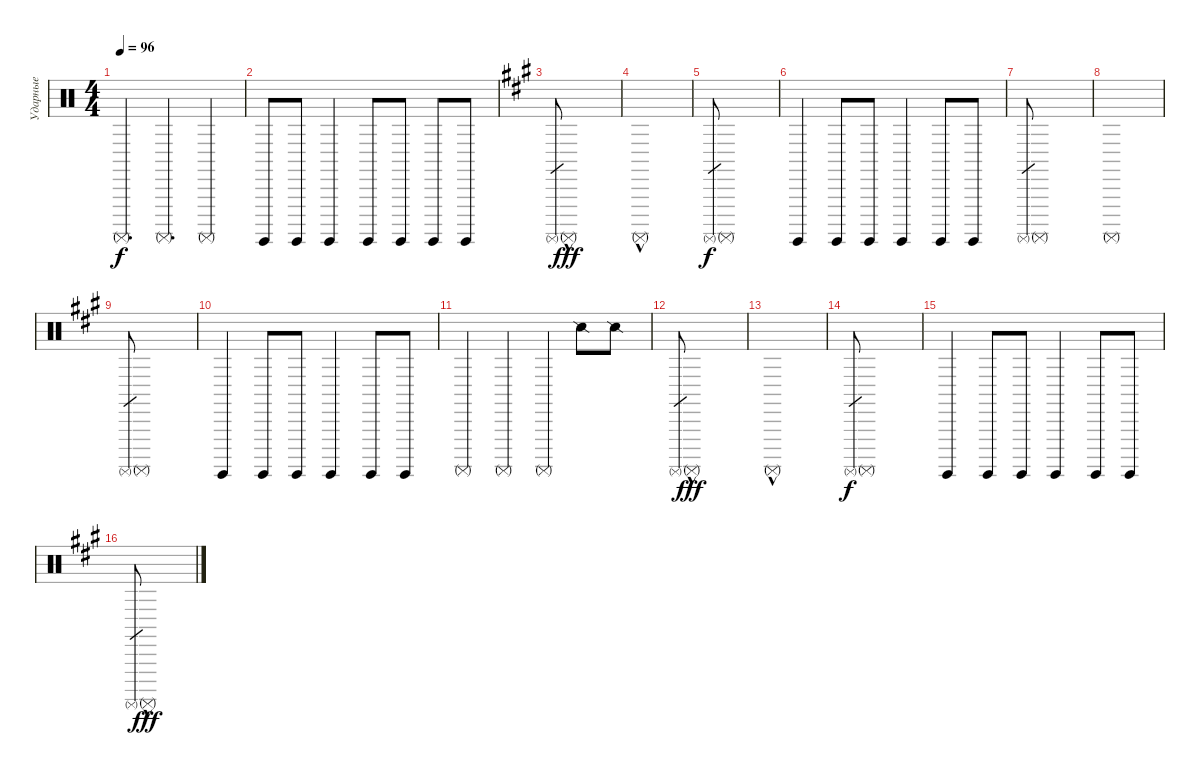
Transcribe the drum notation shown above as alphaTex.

\track ("Ударные" "Ударные") {solo instrument percussion}
\staff {score}
\articulation defaults
\ts (4 4)
\tempo 96
\clef neutral
\ks c "Surdo (mute)".4{d dy f} "Surdo (mute)".4{d} "Surdo (mute)".4
|
"Surdo (hit)".8 "Surdo (hit)".8 "Surdo (hit)".4 "Surdo (hit)".8 "Surdo (hit)".8 "Surdo (hit)".8 "Surdo (hit)".8 |
\ks f#minor "Surdo (mute)".8{gr} "Surdo (mute)"{hac}.1{dy fff}
|
"Surdo (mute)"{hac}.1 |
"Surdo (mute)".8{gr dy f} "Surdo (mute)".1 |
"Surdo (hit)".4 "Surdo (hit)".8 "Surdo (hit)".8 "Surdo (hit)".4 "Surdo (hit)".8 "Surdo (hit)".8 |
"Surdo (mute)".8{gr} "Surdo (mute)".1 |
"Surdo (mute)".1 |
"Surdo (mute)".8{gr} "Surdo (mute)".1 |
"Surdo (hit)".4 "Surdo (hit)".8 "Surdo (hit)".8 "Surdo (hit)".4 "Surdo (hit)".8 "Surdo (hit)".8 |
"Surdo (mute)".4 "Surdo (mute)".4 "Surdo (mute)".4 "Snare (side stick) 2".8 "Snare (side stick) 2".8 |
"Surdo (mute)".8{gr} "Surdo (mute)"{hac}.1{dy fff} |
"Surdo (mute)"{hac}.1 |
"Surdo (mute)".8{gr dy f} "Surdo (mute)".1 |
"Surdo (hit)".4 "Surdo (hit)".8 "Surdo (hit)".8 "Surdo (hit)".4 "Surdo (hit)".8 "Surdo (hit)".8 |
"Surdo (mute)".8{gr} "Surdo (mute)"{hac}.1{dy fff}
